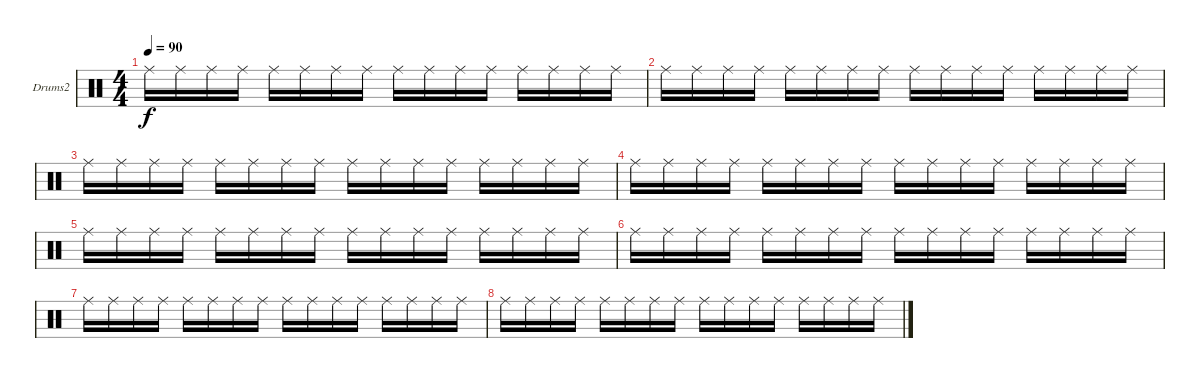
\defaultSystemsLayout 4
\bracketExtendMode groupsimilarinstruments
\firstSystemTrackNameOrientation horizontal
\otherSystemsTrackNameOrientation horizontal
\track ("Drums2" "Drums2") {instrument percussion}
\staff {score}
\articulation defaults
\ts (4 4)
\tempo 90
\clef neutral
\scale
0.333333
\ks c "Ride (middle)".16{dy f} "Ride (middle)".16 "Ride (middle)".16 "Ride (middle)".16 "Ride (middle)".16 "Ride (middle)".16 "Ride (middle)".16 "Ride (middle)".16 "Ride (middle)".16 "Ride (middle)".16 "Ride (middle)".16 "Ride (middle)".16 "Ride (middle)".16 "Ride (middle)".16 "Ride (middle)".16 "Ride (middle)".16
|
\scale
0.333333 "Ride (middle)".16 "Ride (middle)".16 "Ride (middle)".16 "Ride (middle)".16 "Ride (middle)".16 "Ride (middle)".16 "Ride (middle)".16 "Ride (middle)".16 "Ride (middle)".16 "Ride (middle)".16 "Ride (middle)".16 "Ride (middle)".16 "Ride (middle)".16 "Ride (middle)".16 "Ride (middle)".16 "Ride (middle)".16 |
\scale
0.333333 "Ride (middle)".16 "Ride (middle)".16 "Ride (middle)".16 "Ride (middle)".16 "Ride (middle)".16 "Ride (middle)".16 "Ride (middle)".16 "Ride (middle)".16 "Ride (middle)".16 "Ride (middle)".16 "Ride (middle)".16 "Ride (middle)".16 "Ride (middle)".16 "Ride (middle)".16 "Ride (middle)".16 "Ride (middle)".16 |
\scale
0.333333 "Ride (middle)".16 "Ride (middle)".16 "Ride (middle)".16 "Ride (middle)".16 "Ride (middle)".16 "Ride (middle)".16 "Ride (middle)".16 "Ride (middle)".16 "Ride (middle)".16 "Ride (middle)".16 "Ride (middle)".16 "Ride (middle)".16 "Ride (middle)".16 "Ride (middle)".16 "Ride (middle)".16 "Ride (middle)".16 |
\scale
0.333333 "Ride (middle)".16 "Ride (middle)".16 "Ride (middle)".16 "Ride (middle)".16 "Ride (middle)".16 "Ride (middle)".16 "Ride (middle)".16 "Ride (middle)".16 "Ride (middle)".16 "Ride (middle)".16 "Ride (middle)".16 "Ride (middle)".16 "Ride (middle)".16 "Ride (middle)".16 "Ride (middle)".16 "Ride (middle)".16 |
\scale
0.333333 "Ride (middle)".16 "Ride (middle)".16 "Ride (middle)".16 "Ride (middle)".16 "Ride (middle)".16 "Ride (middle)".16 "Ride (middle)".16 "Ride (middle)".16 "Ride (middle)".16 "Ride (middle)".16 "Ride (middle)".16 "Ride (middle)".16 "Ride (middle)".16 "Ride (middle)".16 "Ride (middle)".16 "Ride (middle)".16 |
\scale
0.333333 "Ride (middle)".16 "Ride (middle)".16 "Ride (middle)".16 "Ride (middle)".16 "Ride (middle)".16 "Ride (middle)".16 "Ride (middle)".16 "Ride (middle)".16 "Ride (middle)".16 "Ride (middle)".16 "Ride (middle)".16 "Ride (middle)".16 "Ride (middle)".16 "Ride (middle)".16 "Ride (middle)".16 "Ride (middle)".16 |
\scale
0.333333 "Ride (middle)".16 "Ride (middle)".16 "Ride (middle)".16 "Ride (middle)".16 "Ride (middle)".16 "Ride (middle)".16 "Ride (middle)".16 "Ride (middle)".16 "Ride (middle)".16 "Ride (middle)".16 "Ride (middle)".16 "Ride (middle)".16 "Ride (middle)".16 "Ride (middle)".16 "Ride (middle)".16 "Ride (middle)".16 |
\scale
0.333333 |
\scale
0.333333 |
\scale
0.333333 |
\scale
0.333333 |
\scale
0.333333 |
\scale
0.333333 |
\scale
0.333333 |
\scale
0.333333
